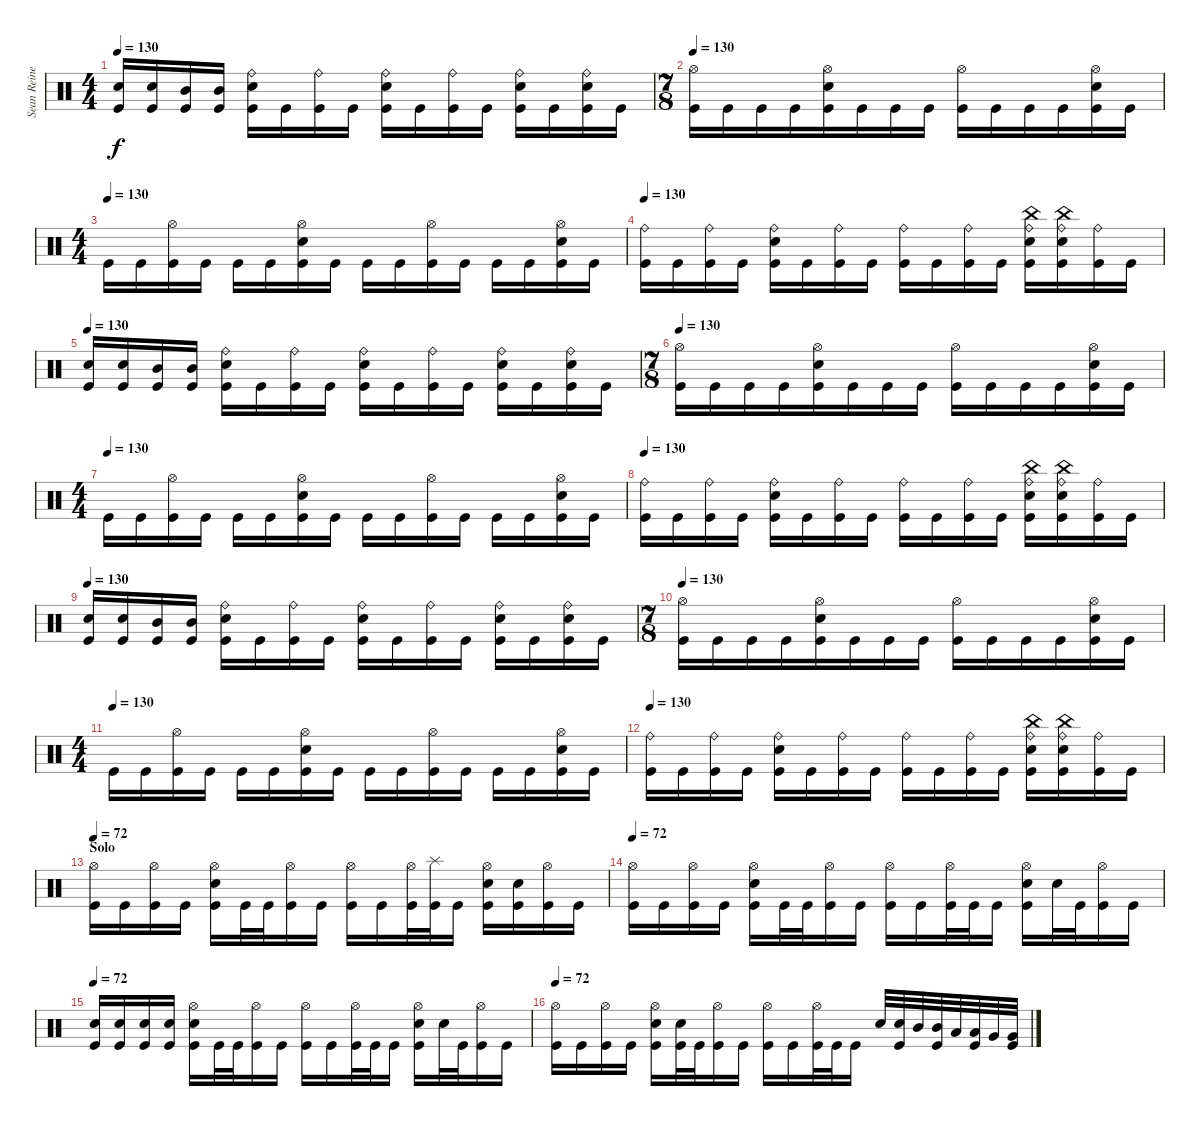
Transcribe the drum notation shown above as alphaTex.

\track ("Sean Reinert" "Sean Reine") {instrument percussion}
\staff {score}
\articulation defaults
\ts (4 4)
\tempo 130
\clef neutral
\ks c
("Snare (hit) 2" "Kick (hit)").16{dy f} ("Snare (hit) 2" "Kick (hit)").16 ("Mid Tom (hit)" "Kick (hit)").16 ("Mid Tom (hit)" "Kick (hit)").16 ("Ride (bell)" "Snare (hit) 2" "Kick (hit)").16 "Kick (hit)".16 ("Ride (bell)" "Kick (hit)").16 "Kick (hit)".16 ("Ride (bell)" "Snare (hit) 2" "Kick (hit)").16 "Kick (hit)".16 ("Ride (bell)" "Kick (hit)").16 "Kick (hit)".16 ("Ride (bell)" "Snare (hit) 2" "Kick (hit)").16 "Kick (hit)".16 ("Ride (bell)" "Snare (hit) 2" "Kick (hit)").16 "Kick (hit)".16 |
\ts (7 8)
\tempo 130
("Hi-Hat (open)" "Kick (hit)").16 "Kick (hit)".16 "Kick (hit)".16 "Kick (hit)".16 ("Hi-Hat (open)" "Snare (hit) 2" "Kick (hit)").16 "Kick (hit)".16 "Kick (hit)".16 "Kick (hit)".16 ("Hi-Hat (open)" "Kick (hit)").16 "Kick (hit)".16 "Kick (hit)".16 "Kick (hit)".16 ("Hi-Hat (open)" "Snare (hit) 2" "Kick (hit)").16 "Kick (hit)".16 |
\ts (4 4)
\tempo (130)
"Kick (hit)".16 "Kick (hit)".16 ("Hi-Hat (open)" "Kick (hit)").16 "Kick (hit)".16 "Kick (hit)".16 "Kick (hit)".16 ("Hi-Hat (open)" "Snare (hit) 2" "Kick (hit)").16 "Kick (hit)".16 "Kick (hit)".16 "Kick (hit)".16 ("Hi-Hat (open)" "Kick (hit)").16 "Kick (hit)".16 "Kick (hit)".16 "Kick (hit)".16 ("Hi-Hat (open)" "Snare (hit) 2" "Kick (hit)").16 "Kick (hit)".16 |
\tempo 130
("Ride (bell)" "Kick (hit)").16 "Kick (hit)".16 ("Ride (bell)" "Kick (hit)").16 "Kick (hit)".16 ("Ride (bell)" "Snare (hit) 2" "Kick (hit)").16 "Kick (hit)".16 ("Ride (bell)" "Kick (hit)").16 "Kick (hit)".16 ("Ride (bell)" "Kick (hit)").16 "Kick (hit)".16 ("Ride (bell)" "Kick (hit)").16 "Kick (hit)".16 ("China (hit)" "Ride (bell)" "Snare (hit) 2" "Kick (hit)").16 ("China (hit)" "Ride (bell)" "Snare (hit) 2" "Kick (hit)").16 ("Ride (bell)" "Kick (hit)").16 "Kick (hit)".16 |
\tempo 130
("Snare (hit) 2" "Kick (hit)").16 ("Snare (hit) 2" "Kick (hit)").16 ("Mid Tom (hit)" "Kick (hit)").16 ("Mid Tom (hit)" "Kick (hit)").16 ("Ride (bell)" "Snare (hit) 2" "Kick (hit)").16 "Kick (hit)".16 ("Ride (bell)" "Kick (hit)").16 "Kick (hit)".16 ("Ride (bell)" "Snare (hit) 2" "Kick (hit)").16 "Kick (hit)".16 ("Ride (bell)" "Kick (hit)").16 "Kick (hit)".16 ("Ride (bell)" "Snare (hit) 2" "Kick (hit)").16 "Kick (hit)".16 ("Ride (bell)" "Snare (hit) 2" "Kick (hit)").16 "Kick (hit)".16 |
\ts (7 8)
\tempo 130
("Hi-Hat (open)" "Kick (hit)").16 "Kick (hit)".16 "Kick (hit)".16 "Kick (hit)".16 ("Hi-Hat (open)" "Snare (hit) 2" "Kick (hit)").16 "Kick (hit)".16 "Kick (hit)".16 "Kick (hit)".16 ("Hi-Hat (open)" "Kick (hit)").16 "Kick (hit)".16 "Kick (hit)".16 "Kick (hit)".16 ("Hi-Hat (open)" "Snare (hit) 2" "Kick (hit)").16 "Kick (hit)".16 |
\ts (4 4)
\tempo (130)
"Kick (hit)".16 "Kick (hit)".16 ("Hi-Hat (open)" "Kick (hit)").16 "Kick (hit)".16 "Kick (hit)".16 "Kick (hit)".16 ("Hi-Hat (open)" "Snare (hit) 2" "Kick (hit)").16 "Kick (hit)".16 "Kick (hit)".16 "Kick (hit)".16 ("Hi-Hat (open)" "Kick (hit)").16 "Kick (hit)".16 "Kick (hit)".16 "Kick (hit)".16 ("Hi-Hat (open)" "Snare (hit) 2" "Kick (hit)").16 "Kick (hit)".16 |
\tempo 130
("Ride (bell)" "Kick (hit)").16 "Kick (hit)".16 ("Ride (bell)" "Kick (hit)").16 "Kick (hit)".16 ("Ride (bell)" "Snare (hit) 2" "Kick (hit)").16 "Kick (hit)".16 ("Ride (bell)" "Kick (hit)").16 "Kick (hit)".16 ("Ride (bell)" "Kick (hit)").16 "Kick (hit)".16 ("Ride (bell)" "Kick (hit)").16 "Kick (hit)".16 ("China (hit)" "Ride (bell)" "Snare (hit) 2" "Kick (hit)").16 ("China (hit)" "Ride (bell)" "Snare (hit) 2" "Kick (hit)").16 ("Ride (bell)" "Kick (hit)").16 "Kick (hit)".16 |
\tempo 130
("Snare (hit) 2" "Kick (hit)").16 ("Snare (hit) 2" "Kick (hit)").16 ("Mid Tom (hit)" "Kick (hit)").16 ("Mid Tom (hit)" "Kick (hit)").16 ("Ride (bell)" "Snare (hit) 2" "Kick (hit)").16 "Kick (hit)".16 ("Ride (bell)" "Kick (hit)").16 "Kick (hit)".16 ("Ride (bell)" "Snare (hit) 2" "Kick (hit)").16 "Kick (hit)".16 ("Ride (bell)" "Kick (hit)").16 "Kick (hit)".16 ("Ride (bell)" "Snare (hit) 2" "Kick (hit)").16 "Kick (hit)".16 ("Ride (bell)" "Snare (hit) 2" "Kick (hit)").16 "Kick (hit)".16 |
\ts (7 8)
\tempo 130
("Hi-Hat (open)" "Kick (hit)").16 "Kick (hit)".16 "Kick (hit)".16 "Kick (hit)".16 ("Hi-Hat (open)" "Snare (hit) 2" "Kick (hit)").16 "Kick (hit)".16 "Kick (hit)".16 "Kick (hit)".16 ("Hi-Hat (open)" "Kick (hit)").16 "Kick (hit)".16 "Kick (hit)".16 "Kick (hit)".16 ("Hi-Hat (open)" "Snare (hit) 2" "Kick (hit)").16 "Kick (hit)".16 |
\ts (4 4)
\tempo (130)
"Kick (hit)".16 "Kick (hit)".16 ("Hi-Hat (open)" "Kick (hit)").16 "Kick (hit)".16 "Kick (hit)".16 "Kick (hit)".16 ("Hi-Hat (open)" "Snare (hit) 2" "Kick (hit)").16 "Kick (hit)".16 "Kick (hit)".16 "Kick (hit)".16 ("Hi-Hat (open)" "Kick (hit)").16 "Kick (hit)".16 "Kick (hit)".16 "Kick (hit)".16 ("Hi-Hat (open)" "Snare (hit) 2" "Kick (hit)").16 "Kick (hit)".16 |
\tempo 130
("Ride (bell)" "Kick (hit)").16 "Kick (hit)".16 ("Ride (bell)" "Kick (hit)").16 "Kick (hit)".16 ("Ride (bell)" "Snare (hit) 2" "Kick (hit)").16 "Kick (hit)".16 ("Ride (bell)" "Kick (hit)").16 "Kick (hit)".16 ("Ride (bell)" "Kick (hit)").16 "Kick (hit)".16 ("Ride (bell)" "Kick (hit)").16 "Kick (hit)".16 ("China (hit)" "Ride (bell)" "Snare (hit) 2" "Kick (hit)").16 ("China (hit)" "Ride (bell)" "Snare (hit) 2" "Kick (hit)").16 ("Ride (bell)" "Kick (hit)").16 "Kick (hit)".16 |
\section ("" "Solo")
\tempo 72
("Hi-Hat (open)" "Kick (hit)").16 "Kick (hit)".16 ("Hi-Hat (open)" "Kick (hit)").16 "Kick (hit)".16 ("Hi-Hat (open)" "Snare (hit) 2" "Kick (hit)").16 "Kick (hit)".32 "Kick (hit)".32 ("Hi-Hat (open)" "Kick (hit)").16 "Kick (hit)".16 ("Hi-Hat (open)" "Kick (hit)").16 "Kick (hit)".16 ("Hi-Hat (open)" "Kick (hit)").32 ("Splash (hit)" "Kick (hit)").32 "Kick (hit)".16 ("Hi-Hat (open)" "Snare (hit) 2" "Kick (hit)").16 ("Snare (hit) 2" "Kick (hit)").16 ("Hi-Hat (open)" "Kick (hit)").16 "Kick (hit)".16 |
\tempo 72
("Hi-Hat (open)" "Kick (hit)").16 "Kick (hit)".16 ("Hi-Hat (open)" "Kick (hit)").16 "Kick (hit)".16 ("Hi-Hat (open)" "Snare (hit) 2" "Kick (hit)").16 "Kick (hit)".32 "Kick (hit)".32 ("Hi-Hat (open)" "Kick (hit)").16 "Kick (hit)".16 ("Hi-Hat (open)" "Kick (hit)").16 "Kick (hit)".16 ("Hi-Hat (open)" "Kick (hit)").32 "Kick (hit)".32 "Kick (hit)".16 ("Hi-Hat (open)" "Snare (hit) 2" "Kick (hit)").16 "Snare (hit) 2".32 "Kick (hit)".32 ("Hi-Hat (open)" "Kick (hit)").16 "Kick (hit)".16 |
\tempo 72
("Snare (hit) 2" "Kick (hit)").16 ("Snare (hit) 2" "Kick (hit)").16 ("Snare (hit) 2" "Kick (hit)").16 ("Snare (hit) 2" "Kick (hit)").16 ("Hi-Hat (open)" "Snare (hit) 2" "Kick (hit)").16 "Kick (hit)".32 "Kick (hit)".32 ("Hi-Hat (open)" "Kick (hit)").16 "Kick (hit)".16 ("Hi-Hat (open)" "Kick (hit)").16 "Kick (hit)".16 ("Hi-Hat (open)" "Kick (hit)").32 "Kick (hit)".32 "Kick (hit)".16 ("Hi-Hat (open)" "Snare (hit) 2" "Kick (hit)").16 "Snare (hit) 2".32 "Kick (hit)".32 ("Hi-Hat (open)" "Kick (hit)").16 "Kick (hit)".16 |
\tempo 72
("Hi-Hat (open)" "Kick (hit)").16 "Kick (hit)".16 ("Hi-Hat (open)" "Kick (hit)").16 "Kick (hit)".16 ("Hi-Hat (open)" "Snare (hit) 2" "Kick (hit)").16 ("Snare (hit) 2" "Kick (hit)").32 "Kick (hit)".32 ("Hi-Hat (open)" "Kick (hit)").16 "Kick (hit)".16 ("Hi-Hat (open)" "Kick (hit)").16 "Kick (hit)".16 ("Hi-Hat (open)" "Kick (hit)").32 "Kick (hit)".32 "Kick (hit)".16 "Snare (hit) 2".32 ("Snare (hit) 2" "Kick (hit)").32 "Mid Tom (hit)".32 ("Mid Tom (hit)" "Kick (hit)").32 "Low Tom (hit)".32 ("Low Tom (hit)" "Kick (hit)").32 "Very Low Tom (hit)".32 ("Very Low Tom (hit)" "Kick (hit)").32
